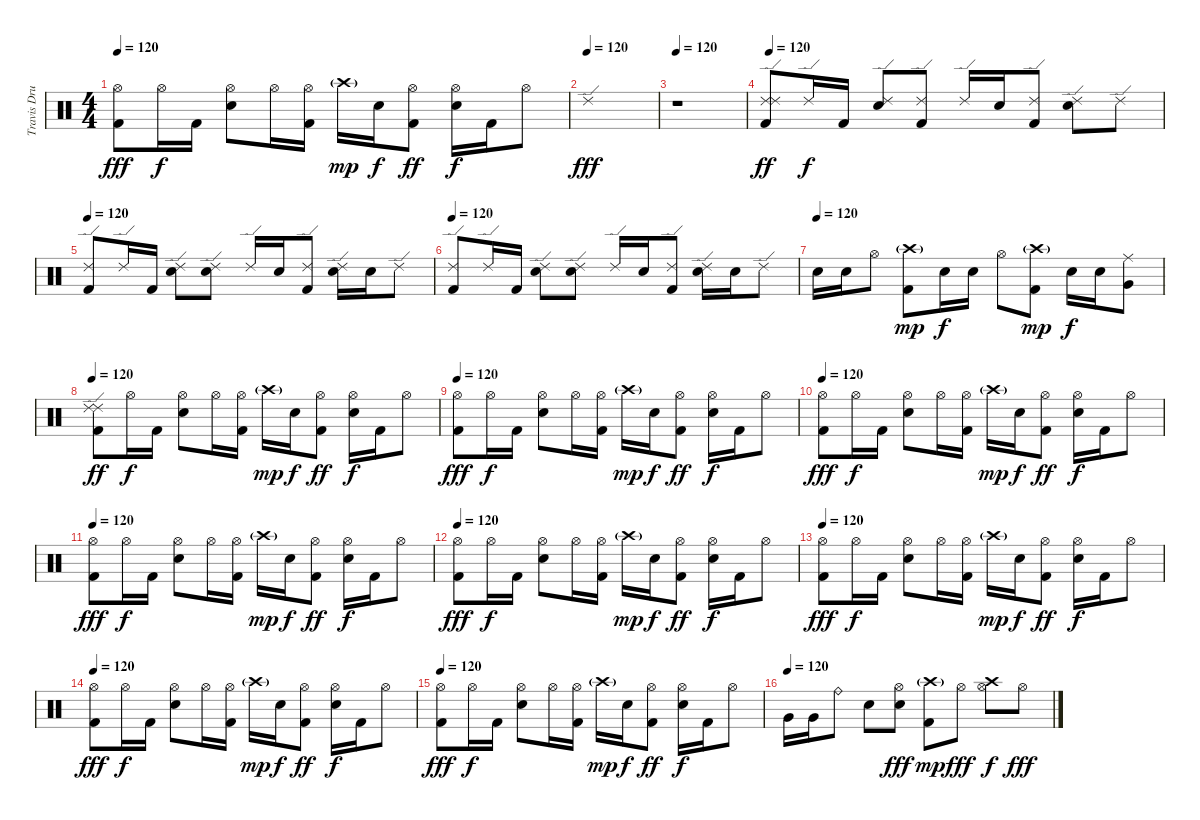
\track ("Travis Drums" "Travis Dru") {instrument percussion}
\staff {score}
\articulation defaults
\ts (4 4)
\tempo 120
\clef neutral
\ks c
("Hi-Hat (open)" "Kick (hit) 2").8{dy fff} "Hi-Hat (open)".16{dy f} "Kick (hit) 2".16 ("Hi-Hat (open)" "Electric Snare (hit)").8 "Hi-Hat (open)".16 ("Hi-Hat (open)" "Kick (hit) 2").16 "Crash high (hit)"{g}.16{dy mp} "Electric Snare (hit)".16{dy f} ("Hi-Hat (open)" "Kick (hit) 2").8{dy ff} ("Hi-Hat (open)" "Electric Snare (hit)").16{dy f} "Kick (hit) 2".16 "Hi-Hat (open)".8 |
\tempo (120)
"Ride (edge) 2".1{dy fff} |
\tempo 120
r.1 |
\tempo 120
("Ride (edge) 2" "Ride (edge) 2" "Kick (hit) 2").8{dy ff} "Ride (edge) 2".16{dy f} "Kick (hit) 2".16 ("Ride (edge) 2" "Electric Snare (hit)").8 ("Ride (edge) 2" "Kick (hit) 2").8 "Ride (edge) 2".16 "Electric Snare (hit)".16 ("Ride (edge) 2" "Kick (hit) 2").8 ("Ride (edge) 2" "Electric Snare (hit)").8 "Ride (edge) 2".8 |
\tempo 120
("Ride (edge) 2" "Kick (hit) 2").8 "Ride (edge) 2".16 "Kick (hit) 2".16 ("Ride (edge) 2" "Electric Snare (hit)").8 ("Ride (edge) 2" "Electric Snare (hit)").8 "Ride (edge) 2".16 "Electric Snare (hit)".16 ("Ride (edge) 2" "Kick (hit) 2").8 ("Ride (edge) 2" "Electric Snare (hit)").16 "Electric Snare (hit)".16 "Ride (edge) 2".8 |
\tempo 120
("Ride (edge) 2" "Kick (hit) 2").8 "Ride (edge) 2".16 "Kick (hit) 2".16 ("Ride (edge) 2" "Electric Snare (hit)").8 ("Ride (edge) 2" "Electric Snare (hit)").8 "Ride (edge) 2".16 "Electric Snare (hit)".16 ("Ride (edge) 2" "Kick (hit) 2").8 ("Ride (edge) 2" "Electric Snare (hit)").16 "Electric Snare (hit)".16 "Ride (edge) 2".8 |
\tempo (120)
"Electric Snare (hit)".16 "Electric Snare (hit)".16 "Hi-Hat (open)".8 ("Crash high (hit)"{g} "Kick (hit) 2").8{dy mp} "Electric Snare (hit)".16{dy f} "Electric Snare (hit)".16 "Hi-Hat (open)".8 ("Crash high (hit)"{g} "Kick (hit) 2").8{dy mp} "Electric Snare (hit)".16{dy f} "Electric Snare (hit)".16 ("Ride (middle)" "Very Low Tom (hit)").8 |
\tempo 120
("Ride (edge) 2" "Ride (edge) 2" "Kick (hit) 2").8{dy ff} "Hi-Hat (open)".16{dy f} "Kick (hit) 2".16 ("Hi-Hat (open)" "Electric Snare (hit)").8 "Hi-Hat (open)".16 ("Hi-Hat (open)" "Kick (hit) 2").16 "Crash high (hit)"{g}.16{dy mp} "Electric Snare (hit)".16{dy f} ("Hi-Hat (open)" "Kick (hit) 2").8{dy ff} ("Hi-Hat (open)" "Electric Snare (hit)").16{dy f} "Kick (hit) 2".16 "Hi-Hat (open)".8 |
\tempo 120
("Hi-Hat (open)" "Kick (hit) 2").8{dy fff} "Hi-Hat (open)".16{dy f} "Kick (hit) 2".16 ("Hi-Hat (open)" "Electric Snare (hit)").8 "Hi-Hat (open)".16 ("Hi-Hat (open)" "Kick (hit) 2").16 "Crash high (hit)"{g}.16{dy mp} "Electric Snare (hit)".16{dy f} ("Hi-Hat (open)" "Kick (hit) 2").8{dy ff} ("Hi-Hat (open)" "Electric Snare (hit)").16{dy f} "Kick (hit) 2".16 "Hi-Hat (open)".8 |
\tempo 120
("Hi-Hat (open)" "Kick (hit) 2").8{dy fff} "Hi-Hat (open)".16{dy f} "Kick (hit) 2".16 ("Hi-Hat (open)" "Electric Snare (hit)").8 "Hi-Hat (open)".16 ("Hi-Hat (open)" "Kick (hit) 2").16 "Crash high (hit)"{g}.16{dy mp} "Electric Snare (hit)".16{dy f} ("Hi-Hat (open)" "Kick (hit) 2").8{dy ff} ("Hi-Hat (open)" "Electric Snare (hit)").16{dy f} "Kick (hit) 2".16 "Hi-Hat (open)".8 |
\tempo 120
("Hi-Hat (open)" "Kick (hit) 2").8{dy fff} "Hi-Hat (open)".16{dy f} "Kick (hit) 2".16 ("Hi-Hat (open)" "Electric Snare (hit)").8 "Hi-Hat (open)".16 ("Hi-Hat (open)" "Kick (hit) 2").16 "Crash high (hit)"{g}.16{dy mp} "Electric Snare (hit)".16{dy f} ("Hi-Hat (open)" "Kick (hit) 2").8{dy ff} ("Hi-Hat (open)" "Electric Snare (hit)").16{dy f} "Kick (hit) 2".16 "Hi-Hat (open)".8 |
\tempo 120
("Hi-Hat (open)" "Kick (hit) 2").8{dy fff} "Hi-Hat (open)".16{dy f} "Kick (hit) 2".16 ("Hi-Hat (open)" "Electric Snare (hit)").8 "Hi-Hat (open)".16 ("Hi-Hat (open)" "Kick (hit) 2").16 "Crash high (hit)"{g}.16{dy mp} "Electric Snare (hit)".16{dy f} ("Hi-Hat (open)" "Kick (hit) 2").8{dy ff} ("Hi-Hat (open)" "Electric Snare (hit)").16{dy f} "Kick (hit) 2".16 "Hi-Hat (open)".8 |
\tempo 120
("Hi-Hat (open)" "Kick (hit) 2").8{dy fff} "Hi-Hat (open)".16{dy f} "Kick (hit) 2".16 ("Hi-Hat (open)" "Electric Snare (hit)").8 "Hi-Hat (open)".16 ("Hi-Hat (open)" "Kick (hit) 2").16 "Crash high (hit)"{g}.16{dy mp} "Electric Snare (hit)".16{dy f} ("Hi-Hat (open)" "Kick (hit) 2").8{dy ff} ("Hi-Hat (open)" "Electric Snare (hit)").16{dy f} "Kick (hit) 2".16 "Hi-Hat (open)".8 |
\tempo 120
("Hi-Hat (open)" "Kick (hit) 2").8{dy fff} "Hi-Hat (open)".16{dy f} "Kick (hit) 2".16 ("Hi-Hat (open)" "Electric Snare (hit)").8 "Hi-Hat (open)".16 ("Hi-Hat (open)" "Kick (hit) 2").16 "Crash high (hit)"{g}.16{dy mp} "Electric Snare (hit)".16{dy f} ("Hi-Hat (open)" "Kick (hit) 2").8{dy ff} ("Hi-Hat (open)" "Electric Snare (hit)").16{dy f} "Kick (hit) 2".16 "Hi-Hat (open)".8 |
\tempo 120
("Hi-Hat (open)" "Kick (hit) 2").8{dy fff} "Hi-Hat (open)".16{dy f} "Kick (hit) 2".16 ("Hi-Hat (open)" "Electric Snare (hit)").8 "Hi-Hat (open)".16 ("Hi-Hat (open)" "Kick (hit) 2").16 "Crash high (hit)"{g}.16{dy mp} "Electric Snare (hit)".16{dy f} ("Hi-Hat (open)" "Kick (hit) 2").8{dy ff} ("Hi-Hat (open)" "Electric Snare (hit)").16{dy f} "Kick (hit) 2".16 "Hi-Hat (open)".8 |
\tempo (120)
"Very Low Tom (hit)".16 "Very Low Tom (hit)".16 "Ride (bell)".8 "Electric Snare (hit)".8 ("Hi-Hat (open)" "Electric Snare (hit)").8{dy fff} ("Crash high (hit)"{g} "Kick (hit) 2").8{dy mp} "Hi-Hat (open)".8{dy fff} ("Crash high (hit)" "Hi-Hat (open)").8{dy f} "Hi-Hat (open)".8{dy fff}
